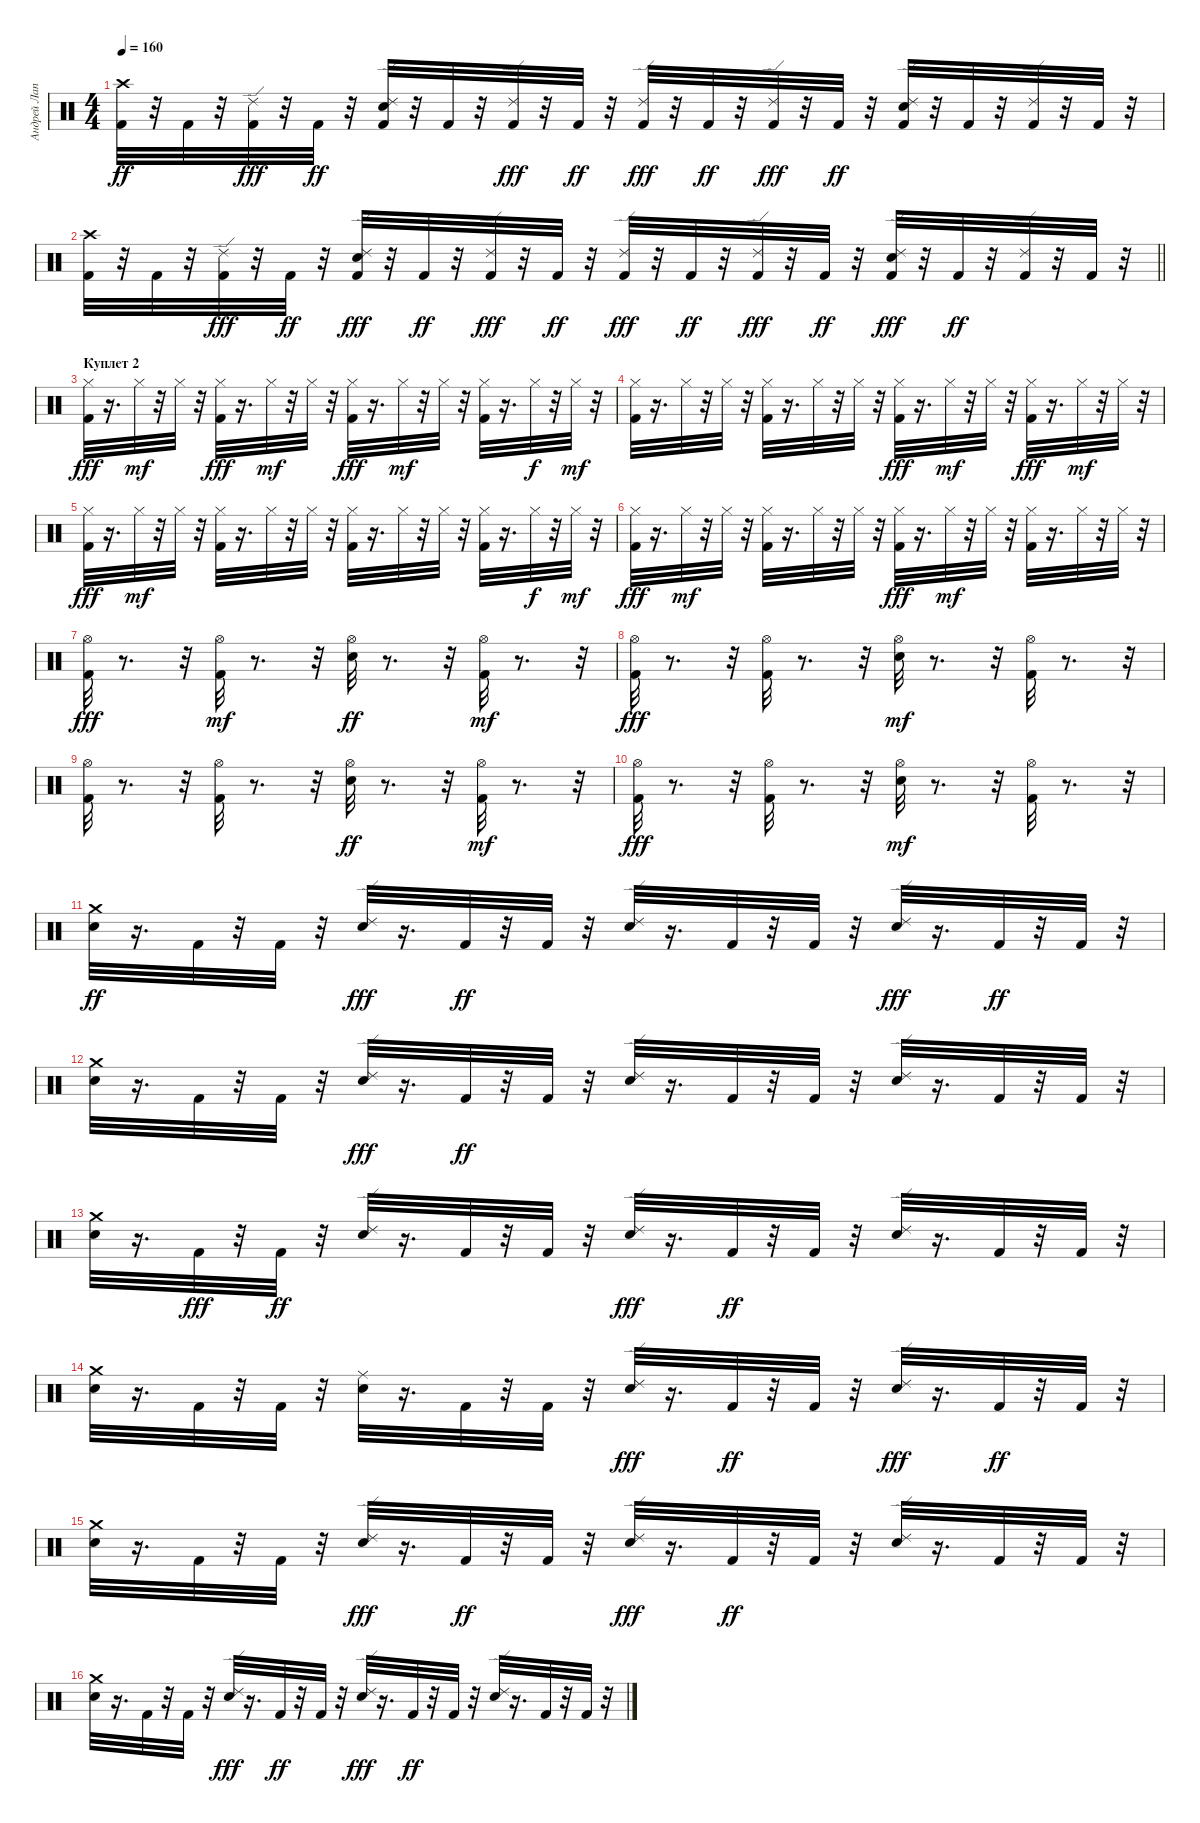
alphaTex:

\track ("Андрей Лаптев" "Андрей Лап") {instrument percussion}
\staff {score}
\articulation defaults
\ts (4 4)
\tempo 160
\clef neutral
\ks c
("Crash high (hit)" "Kick (hit) 2").32{dy ff} r.32 "Kick (hit) 2".32 r.32 ("Kick (hit) 2" "Ride (edge) 2").32{dy fff} r.32 "Kick (hit) 2".32{dy ff} r.32 ("Ride (edge) 2" "Electric Snare (hit)" "Kick (hit) 2").32 r.32 "Kick (hit) 2".32 r.32 ("Kick (hit) 2" "Ride (edge) 2").32{dy fff} r.32 "Kick (hit) 2".32{dy ff} r.32 ("Kick (hit) 2" "Ride (edge) 2").32{dy fff} r.32 "Kick (hit) 2".32{dy ff} r.32 ("Kick (hit) 2" "Ride (edge) 2").32{dy fff} r.32 "Kick (hit) 2".32{dy ff} r.32 ("Kick (hit) 2" "Ride (edge) 2" "Electric Snare (hit)").32 r.32 "Kick (hit) 2".32 r.32 ("Ride (edge) 2" "Kick (hit) 2").32 r.32 "Kick (hit) 2".32 r.32 |
\barLineRight lightlight
("Kick (hit) 2" "Crash high (hit)").32 r.32 "Kick (hit) 2".32 r.32 ("Kick (hit) 2" "Ride (edge) 2").32{dy fff} r.32 "Kick (hit) 2".32{dy ff} r.32 ("Electric Snare (hit)" "Kick (hit) 2" "Ride (edge) 2").32{dy fff} r.32 "Kick (hit) 2".32{dy ff} r.32 ("Kick (hit) 2" "Ride (edge) 2").32{dy fff} r.32 "Kick (hit) 2".32{dy ff} r.32 ("Kick (hit) 2" "Ride (edge) 2").32{dy fff} r.32 "Kick (hit) 2".32{dy ff} r.32 ("Kick (hit) 2" "Ride (edge) 2").32{dy fff} r.32 "Kick (hit) 2".32{dy ff} r.32 ("Electric Snare (hit)" "Kick (hit) 2" "Ride (edge) 2").32{dy fff} r.32 "Kick (hit) 2".32{dy ff} r.32 ("Ride (edge) 2" "Kick (hit) 2").32 r.32 "Kick (hit) 2".32 r.32 |
\section ("" "Куплет 2")
("Hi-Hat (closed)" "Kick (hit) 2").32{dy fff} r.16{d} "Hi-Hat (closed)".32{dy mf} r.32 "Hi-Hat (closed)".32 r.32 ("Hi-Hat (closed)" "Kick (hit) 2").32{dy fff} r.16{d} "Hi-Hat (closed)".32{dy mf} r.32 "Hi-Hat (closed)".32 r.32 ("Hi-Hat (closed)" "Kick (hit) 2").32{dy fff} r.16{d} "Hi-Hat (closed)".32{dy mf} r.32 "Hi-Hat (closed)".32 r.32 ("Kick (hit) 2" "Hi-Hat (closed)").32 r.16{d} "Hi-Hat (closed)".32{dy f} r.32 "Hi-Hat (closed)".32{dy mf} r.32 |
("Kick (hit) 2" "Hi-Hat (closed)").32 r.16{d} "Hi-Hat (closed)".32 r.32 "Hi-Hat (closed)".32 r.32 ("Kick (hit) 2" "Hi-Hat (closed)").32 r.16{d} "Hi-Hat (closed)".32 r.32 "Hi-Hat (closed)".32 r.32 ("Hi-Hat (closed)" "Kick (hit) 2").32{dy fff} r.16{d} "Hi-Hat (closed)".32{dy mf} r.32 "Hi-Hat (closed)".32 r.32 ("Hi-Hat (closed)" "Kick (hit) 2").32{dy fff} r.16{d} "Hi-Hat (closed)".32{dy mf} r.32 "Hi-Hat (closed)".32 r.32 |
("Hi-Hat (closed)" "Kick (hit) 2").32{dy fff} r.16{d} "Hi-Hat (closed)".32{dy mf} r.32 "Hi-Hat (closed)".32 r.32 ("Kick (hit) 2" "Hi-Hat (closed)").32 r.16{d} "Hi-Hat (closed)".32 r.32 "Hi-Hat (closed)".32 r.32 ("Kick (hit) 2" "Hi-Hat (closed)").32 r.16{d} "Hi-Hat (closed)".32 r.32 "Hi-Hat (closed)".32 r.32 ("Kick (hit) 2" "Hi-Hat (closed)").32 r.16{d} "Hi-Hat (closed)".32{dy f} r.32 "Hi-Hat (closed)".32{dy mf} r.32 |
("Hi-Hat (closed)" "Kick (hit) 2").32{dy fff} r.16{d} "Hi-Hat (closed)".32{dy mf} r.32 "Hi-Hat (closed)".32 r.32 ("Kick (hit) 2" "Hi-Hat (closed)").32 r.16{d} "Hi-Hat (closed)".32 r.32 "Hi-Hat (closed)".32 r.32 ("Hi-Hat (closed)" "Kick (hit) 2").32{dy fff} r.16{d} "Hi-Hat (closed)".32{dy mf} r.32 "Hi-Hat (closed)".32 r.32 ("Kick (hit) 2" "Hi-Hat (closed)").32 r.16{d} "Hi-Hat (closed)".32 r.32 "Hi-Hat (closed)".32 r.32 |
("Hi-Hat (open)" "Kick (hit) 2").32{dy fff} r.8{d} r.32 ("Kick (hit) 2" "Hi-Hat (open)").32{dy mf} r.8{d} r.32 ("Hi-Hat (open)" "Electric Snare (hit)").32{dy ff} r.8{d} r.32 ("Kick (hit) 2" "Hi-Hat (open)").32{dy mf} r.8{d} r.32 |
("Hi-Hat (open)" "Kick (hit) 2").32{dy fff} r.8{d} r.32 ("Hi-Hat (open)" "Kick (hit) 2").32 r.8{d} r.32 ("Electric Snare (hit)" "Hi-Hat (open)").32{dy mf} r.8{d} r.32 ("Kick (hit) 2" "Hi-Hat (open)").32 r.8{d} r.32 |
("Kick (hit) 2" "Hi-Hat (open)").32 r.8{d} r.32 ("Kick (hit) 2" "Hi-Hat (open)").32 r.8{d} r.32 ("Hi-Hat (open)" "Electric Snare (hit)").32{dy ff} r.8{d} r.32 ("Hi-Hat (open)" "Kick (hit) 2").32{dy mf} r.8{d} r.32 |
("Hi-Hat (open)" "Kick (hit) 2").32{dy fff} r.8{d} r.32 ("Hi-Hat (open)" "Kick (hit) 2").32 r.8{d} r.32 ("Electric Snare (hit)" "Hi-Hat (open)").32{dy mf} r.8{d} r.32 ("Kick (hit) 2" "Hi-Hat (open)").32 r.8{d} r.32 |
("Crash medium (hit)" "Electric Snare (hit)").32{dy ff} r.16{d} "Kick (hit) 2".32 r.32 "Kick (hit) 2".32 r.32 ("Electric Snare (hit)" "Ride (edge) 2").32{dy fff} r.16{d} "Kick (hit) 2".32{dy ff} r.32 "Kick (hit) 2".32 r.32 ("Ride (edge) 2" "Electric Snare (hit)").32 r.16{d} "Kick (hit) 2".32 r.32 "Kick (hit) 2".32 r.32 ("Electric Snare (hit)" "Ride (edge) 2").32{dy fff} r.16{d} "Kick (hit) 2".32{dy ff} r.32 "Kick (hit) 2".32 r.32 |
("Electric Snare (hit)" "Crash medium (hit)").32 r.16{d} "Kick (hit) 2".32 r.32 "Kick (hit) 2".32 r.32 ("Electric Snare (hit)" "Ride (edge) 2").32{dy fff} r.16{d} "Kick (hit) 2".32{dy ff} r.32 "Kick (hit) 2".32 r.32 ("Ride (edge) 2" "Electric Snare (hit)").32 r.16{d} "Kick (hit) 2".32 r.32 "Kick (hit) 2".32 r.32 ("Ride (edge) 2" "Electric Snare (hit)").32 r.16{d} "Kick (hit) 2".32 r.32 "Kick (hit) 2".32 r.32 |
("Electric Snare (hit)" "Crash medium (hit)").32 r.16{d} "Kick (hit) 2".32{dy fff} r.32 "Kick (hit) 2".32{dy ff} r.32 ("Ride (edge) 2" "Electric Snare (hit)").32 r.16{d} "Kick (hit) 2".32 r.32 "Kick (hit) 2".32 r.32 ("Electric Snare (hit)" "Ride (edge) 2").32{dy fff} r.16{d} "Kick (hit) 2".32{dy ff} r.32 "Kick (hit) 2".32 r.32 ("Ride (edge) 2" "Electric Snare (hit)").32 r.16{d} "Kick (hit) 2".32 r.32 "Kick (hit) 2".32 r.32 |
("Electric Snare (hit)" "Crash medium (hit)").32 r.16{d} "Kick (hit) 2".32 r.32 "Kick (hit) 2".32 r.32 ("Ride (middle)" "Electric Snare (hit)").32 r.16{d} "Kick (hit) 2".32 r.32 "Kick (hit) 2".32 r.32 ("Electric Snare (hit)" "Ride (edge) 2").32{dy fff} r.16{d} "Kick (hit) 2".32{dy ff} r.32 "Kick (hit) 2".32 r.32 ("Electric Snare (hit)" "Ride (edge) 2").32{dy fff} r.16{d} "Kick (hit) 2".32{dy ff} r.32 "Kick (hit) 2".32 r.32 |
("Electric Snare (hit)" "Crash medium (hit)").32 r.16{d} "Kick (hit) 2".32 r.32 "Kick (hit) 2".32 r.32 ("Electric Snare (hit)" "Ride (edge) 2").32{dy fff} r.16{d} "Kick (hit) 2".32{dy ff} r.32 "Kick (hit) 2".32 r.32 ("Electric Snare (hit)" "Ride (edge) 2").32{dy fff} r.16{d} "Kick (hit) 2".32{dy ff} r.32 "Kick (hit) 2".32 r.32 ("Ride (edge) 2" "Electric Snare (hit)").32 r.16{d} "Kick (hit) 2".32 r.32 "Kick (hit) 2".32 r.32 |
("Crash medium (hit)" "Electric Snare (hit)").32 r.16{d} "Kick (hit) 2".32 r.32 "Kick (hit) 2".32 r.32 ("Electric Snare (hit)" "Ride (edge) 2").32{dy fff} r.16{d} "Kick (hit) 2".32{dy ff} r.32 "Kick (hit) 2".32 r.32 ("Electric Snare (hit)" "Ride (edge) 2").32{dy fff} r.16{d} "Kick (hit) 2".32{dy ff} r.32 "Kick (hit) 2".32 r.32 ("Ride (edge) 2" "Electric Snare (hit)").32 r.16{d} "Kick (hit) 2".32 r.32 "Kick (hit) 2".32 r.32
